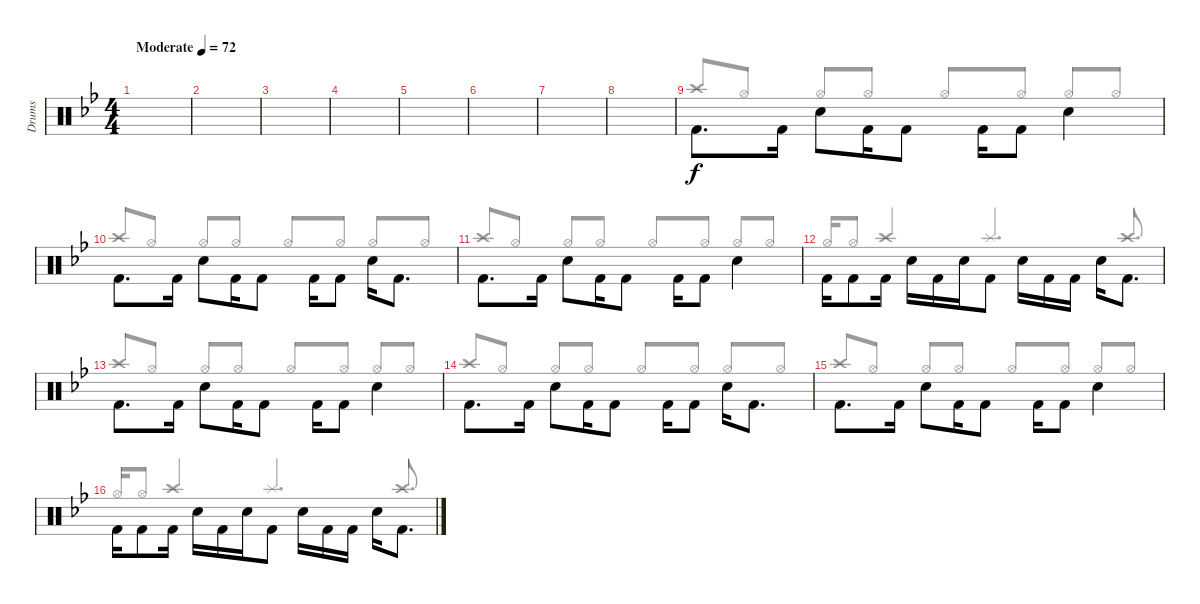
\track ("Drums" "Drums") {instrument percussion}
\staff {score}
\articulation defaults
\voice
\ts (4 4)
\tempo (72 "Moderate")
\clef neutral
\ks gminor
|
|
|
|
|
|
|
|
"Kick (hit) 2".8{d beam Down} "Kick (hit) 2".16{beam Down} "Electric Snare (hit)".8{beam Down} "Kick (hit) 2".16{beam Down} "Kick (hit) 2".8{beam Down} "Kick (hit) 2".16{beam Down} "Kick (hit) 2".8{beam Down} "Electric Snare (hit)".4{beam Down} |
"Kick (hit) 2".8{d beam Down} "Kick (hit) 2".16{beam Down} "Electric Snare (hit)".8{beam Down} "Kick (hit) 2".16{beam Down} "Kick (hit) 2".8{beam Down} "Kick (hit) 2".16{beam Down} "Kick (hit) 2".8{beam Down} "Electric Snare (hit)".16{beam Down} "Kick (hit) 2".8{d beam Down} |
"Kick (hit) 2".8{d beam Down} "Kick (hit) 2".16{beam Down} "Electric Snare (hit)".8{beam Down} "Kick (hit) 2".16{beam Down} "Kick (hit) 2".8{beam Down} "Kick (hit) 2".16{beam Down} "Kick (hit) 2".8{beam Down} "Electric Snare (hit)".4{beam Down} |
"Kick (hit) 2".16{beam Down} "Kick (hit) 2".8{beam Down} "Kick (hit) 2".16{beam Down} "Electric Snare (hit)".16{beam Down} "Kick (hit) 2".16{beam Down} "Electric Snare (hit)".16{beam Down} "Kick (hit) 2".8{beam Down} "Electric Snare (hit)".16{beam Down} "Kick (hit) 2".16{beam Down} "Kick (hit) 2".16{beam Down} "Electric Snare (hit)".16{beam Down} "Kick (hit) 2".8{d beam Down} |
"Kick (hit) 2".8{d beam Down} "Kick (hit) 2".16{beam Down} "Electric Snare (hit)".8{beam Down} "Kick (hit) 2".16{beam Down} "Kick (hit) 2".8{beam Down} "Kick (hit) 2".16{beam Down} "Kick (hit) 2".8{beam Down} "Electric Snare (hit)".4{beam Down} |
"Kick (hit) 2".8{d beam Down} "Kick (hit) 2".16{beam Down} "Electric Snare (hit)".8{beam Down} "Kick (hit) 2".16{beam Down} "Kick (hit) 2".8{beam Down} "Kick (hit) 2".16{beam Down} "Kick (hit) 2".8{beam Down} "Electric Snare (hit)".16{beam Down} "Kick (hit) 2".8{d beam Down} |
"Kick (hit) 2".8{d beam Down} "Kick (hit) 2".16{beam Down} "Electric Snare (hit)".8{beam Down} "Kick (hit) 2".16{beam Down} "Kick (hit) 2".8{beam Down} "Kick (hit) 2".16{beam Down} "Kick (hit) 2".8{beam Down} "Electric Snare (hit)".4{beam Down} |
"Kick (hit) 2".16{beam Down} "Kick (hit) 2".8{beam Down} "Kick (hit) 2".16{beam Down} "Electric Snare (hit)".16{beam Down} "Kick (hit) 2".16{beam Down} "Electric Snare (hit)".16{beam Down} "Kick (hit) 2".8{beam Down} "Electric Snare (hit)".16{beam Down} "Kick (hit) 2".16{beam Down} "Kick (hit) 2".16{beam Down} "Electric Snare (hit)".16{beam Down} "Kick (hit) 2".8{d beam Down}
\voice
\clef neutral
\ottava regular
\simile none
\ks gminor
|
|
|
|
|
|
|
|
"Crash high (hit)".8{beam Up} "Hi-Hat (open)".8{beam Up} "Hi-Hat (open)".8{beam Up} "Hi-Hat (open)".8{beam Up} "Hi-Hat (open)".8{beam Up} "Hi-Hat (open)".8{beam Up} "Hi-Hat (open)".8{beam Up} "Hi-Hat (open)".8{beam Up} |
"Crash high (hit)".8{beam Up} "Hi-Hat (open)".8{beam Up} "Hi-Hat (open)".8{beam Up} "Hi-Hat (open)".8{beam Up} "Hi-Hat (open)".8{beam Up} "Hi-Hat (open)".8{beam Up} "Hi-Hat (open)".8{beam Up} "Hi-Hat (open)".8{beam Up} |
"Crash high (hit)".8{beam Up} "Hi-Hat (open)".8{beam Up} "Hi-Hat (open)".8{beam Up} "Hi-Hat (open)".8{beam Up} "Hi-Hat (open)".8{beam Up} "Hi-Hat (open)".8{beam Up} "Hi-Hat (open)".8{beam Up} "Hi-Hat (open)".8{beam Up} |
"Hi-Hat (open)".16{beam Up} "Hi-Hat (open)".8{beam Up} "Crash high (hit)".4{beam Up} "Splash (hit)".4{d beam Up} "Crash high (hit)".8{d beam Up} |
"Crash high (hit)".8{beam Up} "Hi-Hat (open)".8{beam Up} "Hi-Hat (open)".8{beam Up} "Hi-Hat (open)".8{beam Up} "Hi-Hat (open)".8{beam Up} "Hi-Hat (open)".8{beam Up} "Hi-Hat (open)".8{beam Up} "Hi-Hat (open)".8{beam Up} |
"Crash high (hit)".8{beam Up} "Hi-Hat (open)".8{beam Up} "Hi-Hat (open)".8{beam Up} "Hi-Hat (open)".8{beam Up} "Hi-Hat (open)".8{beam Up} "Hi-Hat (open)".8{beam Up} "Hi-Hat (open)".8{beam Up} "Hi-Hat (open)".8{beam Up} |
"Crash high (hit)".8{beam Up} "Hi-Hat (open)".8{beam Up} "Hi-Hat (open)".8{beam Up} "Hi-Hat (open)".8{beam Up} "Hi-Hat (open)".8{beam Up} "Hi-Hat (open)".8{beam Up} "Hi-Hat (open)".8{beam Up} "Hi-Hat (open)".8{beam Up} |
"Hi-Hat (open)".16{beam Up} "Hi-Hat (open)".8{beam Up} "Crash high (hit)".4{beam Up} "Splash (hit)".4{d beam Up} "Crash high (hit)".8{d beam Up}
